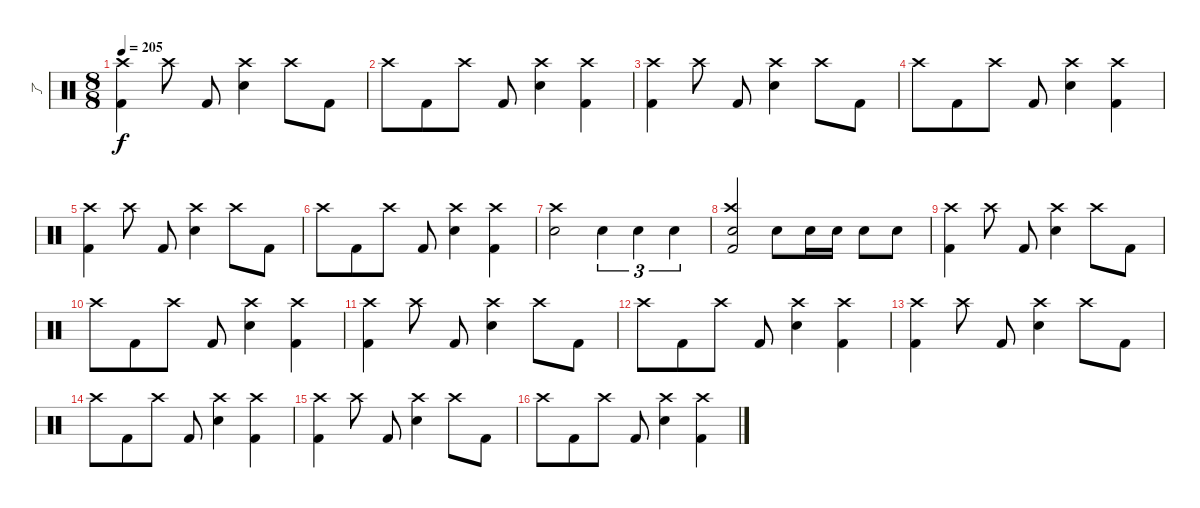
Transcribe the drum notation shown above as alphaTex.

\track ("了" "了") {instrument percussion}
\staff {score}
\articulation defaults
\ts (8 8)
\tempo 205
\clef neutral
\ks c
("Kick (hit) 2" "Crash high (hit)").4{dy f} "Crash high (hit)".8 "Kick (hit) 2".8 ("Snare (hit) 2" "Crash high (hit)").4 "Crash high (hit)".8 "Kick (hit) 2".8 |
"Crash high (hit)".8 "Kick (hit) 2".8 "Crash high (hit)".8 "Kick (hit) 2".8 ("Snare (hit) 2" "Crash high (hit)").4 ("Kick (hit) 2" "Crash high (hit)").4 |
("Kick (hit) 2" "Crash high (hit)").4 "Crash high (hit)".8 "Kick (hit) 2".8 ("Snare (hit) 2" "Crash high (hit)").4 "Crash high (hit)".8 "Kick (hit) 2".8 |
"Crash high (hit)".8 "Kick (hit) 2".8 "Crash high (hit)".8 "Kick (hit) 2".8 ("Snare (hit) 2" "Crash high (hit)").4 ("Kick (hit) 2" "Crash high (hit)").4 |
("Kick (hit) 2" "Crash high (hit)").4 "Crash high (hit)".8 "Kick (hit) 2".8 ("Snare (hit) 2" "Crash high (hit)").4 "Crash high (hit)".8 "Kick (hit) 2".8 |
"Crash high (hit)".8 "Kick (hit) 2".8 "Crash high (hit)".8 "Kick (hit) 2".8 ("Snare (hit) 2" "Crash high (hit)").4 ("Kick (hit) 2" "Crash high (hit)").4 |
("Snare (hit) 2" "Crash high (hit)").2 "Snare (hit) 2".4{tu (3 2)} "Snare (hit) 2".4{tu (3 2)} "Snare (hit) 2".4{tu (3 2)} |
("Crash high (hit)" "Kick (hit) 2" "Snare (hit) 2").2 "Snare (hit) 2".8 "Snare (hit) 2".16 "Snare (hit) 2".16 "Snare (hit) 2".8 "Snare (hit) 2".8 |
("Kick (hit) 2" "Crash high (hit)").4 "Crash high (hit)".8 "Kick (hit) 2".8 ("Snare (hit) 2" "Crash high (hit)").4 "Crash high (hit)".8 "Kick (hit) 2".8 |
"Crash high (hit)".8 "Kick (hit) 2".8 "Crash high (hit)".8 "Kick (hit) 2".8 ("Snare (hit) 2" "Crash high (hit)").4 ("Kick (hit) 2" "Crash high (hit)").4 |
("Kick (hit) 2" "Crash high (hit)").4 "Crash high (hit)".8 "Kick (hit) 2".8 ("Snare (hit) 2" "Crash high (hit)").4 "Crash high (hit)".8 "Kick (hit) 2".8 |
"Crash high (hit)".8 "Kick (hit) 2".8 "Crash high (hit)".8 "Kick (hit) 2".8 ("Snare (hit) 2" "Crash high (hit)").4 ("Kick (hit) 2" "Crash high (hit)").4 |
("Kick (hit) 2" "Crash high (hit)").4 "Crash high (hit)".8 "Kick (hit) 2".8 ("Snare (hit) 2" "Crash high (hit)").4 "Crash high (hit)".8 "Kick (hit) 2".8 |
"Crash high (hit)".8 "Kick (hit) 2".8 "Crash high (hit)".8 "Kick (hit) 2".8 ("Snare (hit) 2" "Crash high (hit)").4 ("Kick (hit) 2" "Crash high (hit)").4 |
("Kick (hit) 2" "Crash high (hit)").4 "Crash high (hit)".8 "Kick (hit) 2".8 ("Snare (hit) 2" "Crash high (hit)").4 "Crash high (hit)".8 "Kick (hit) 2".8 |
"Crash high (hit)".8 "Kick (hit) 2".8 "Crash high (hit)".8 "Kick (hit) 2".8 ("Snare (hit) 2" "Crash high (hit)").4 ("Kick (hit) 2" "Crash high (hit)").4
